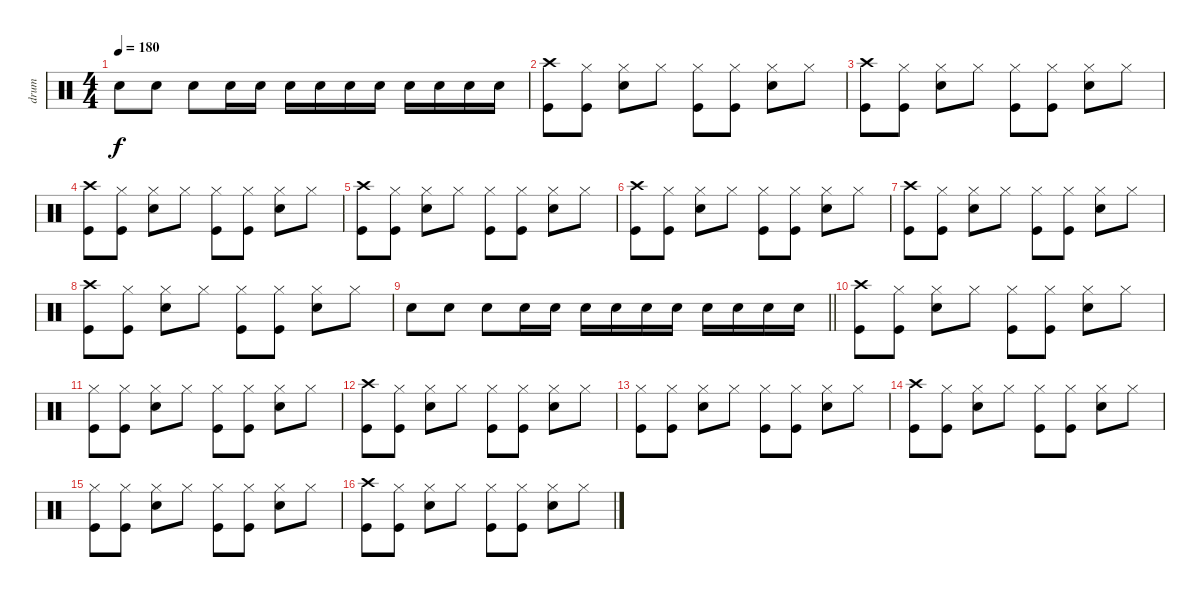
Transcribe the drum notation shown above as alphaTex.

\track ("drum" "drum") {instrument percussion}
\staff {score}
\articulation defaults
\ts (4 4)
\tempo 180
\clef neutral
\ks c "Snare (hit) 2".8{dy f} "Snare (hit) 2".8 "Snare (hit) 2".8 "Snare (hit) 2".16 "Snare (hit) 2".16 "Snare (hit) 2".16 "Snare (hit) 2".16 "Snare (hit) 2".16 "Snare (hit) 2".16 "Snare (hit) 2".16 "Snare (hit) 2".16 "Snare (hit) 2".16 "Snare (hit) 2".16
|
("Crash high (hit)" "Kick (hit)").8 ("Kick (hit)" "Hi-Hat (closed)").8 ("Snare (hit) 2" "Hi-Hat (closed)").8 "Hi-Hat (closed)".8 ("Kick (hit)" "Hi-Hat (closed)").8 ("Kick (hit)" "Hi-Hat (closed)").8 ("Snare (hit) 2" "Hi-Hat (closed)").8 "Hi-Hat (closed)".8 |
("Crash high (hit)" "Kick (hit)").8 ("Kick (hit)" "Hi-Hat (closed)").8 ("Snare (hit) 2" "Hi-Hat (closed)").8 "Hi-Hat (closed)".8 ("Kick (hit)" "Hi-Hat (closed)").8 ("Kick (hit)" "Hi-Hat (closed)").8 ("Snare (hit) 2" "Hi-Hat (closed)").8 "Hi-Hat (closed)".8 |
("Crash high (hit)" "Kick (hit)").8 ("Kick (hit)" "Hi-Hat (closed)").8 ("Snare (hit) 2" "Hi-Hat (closed)").8 "Hi-Hat (closed)".8 ("Kick (hit)" "Hi-Hat (closed)").8 ("Kick (hit)" "Hi-Hat (closed)").8 ("Snare (hit) 2" "Hi-Hat (closed)").8 "Hi-Hat (closed)".8 |
("Crash high (hit)" "Kick (hit)").8 ("Kick (hit)" "Hi-Hat (closed)").8 ("Snare (hit) 2" "Hi-Hat (closed)").8 "Hi-Hat (closed)".8 ("Kick (hit)" "Hi-Hat (closed)").8 ("Kick (hit)" "Hi-Hat (closed)").8 ("Snare (hit) 2" "Hi-Hat (closed)").8 "Hi-Hat (closed)".8 |
("Crash high (hit)" "Kick (hit)").8 ("Kick (hit)" "Hi-Hat (closed)").8 ("Snare (hit) 2" "Hi-Hat (closed)").8 "Hi-Hat (closed)".8 ("Kick (hit)" "Hi-Hat (closed)").8 ("Kick (hit)" "Hi-Hat (closed)").8 ("Snare (hit) 2" "Hi-Hat (closed)").8 "Hi-Hat (closed)".8 |
("Crash high (hit)" "Kick (hit)").8 ("Kick (hit)" "Hi-Hat (closed)").8 ("Snare (hit) 2" "Hi-Hat (closed)").8 "Hi-Hat (closed)".8 ("Kick (hit)" "Hi-Hat (closed)").8 ("Kick (hit)" "Hi-Hat (closed)").8 ("Snare (hit) 2" "Hi-Hat (closed)").8 "Hi-Hat (closed)".8 |
("Crash high (hit)" "Kick (hit)").8 ("Kick (hit)" "Hi-Hat (closed)").8 ("Snare (hit) 2" "Hi-Hat (closed)").8 "Hi-Hat (closed)".8 ("Kick (hit)" "Hi-Hat (closed)").8 ("Kick (hit)" "Hi-Hat (closed)").8 ("Snare (hit) 2" "Hi-Hat (closed)").8 "Hi-Hat (closed)".8 |
\barLineRight lightlight "Snare (hit) 2".8 "Snare (hit) 2".8 "Snare (hit) 2".8 "Snare (hit) 2".16 "Snare (hit) 2".16 "Snare (hit) 2".16 "Snare (hit) 2".16 "Snare (hit) 2".16 "Snare (hit) 2".16 "Snare (hit) 2".16 "Snare (hit) 2".16 "Snare (hit) 2".16 "Snare (hit) 2".16
|
("Crash high (hit)" "Kick (hit)").8 ("Kick (hit)" "Hi-Hat (closed)").8 ("Snare (hit) 2" "Hi-Hat (closed)").8 "Hi-Hat (closed)".8 ("Kick (hit)" "Hi-Hat (closed)").8 ("Kick (hit)" "Hi-Hat (closed)").8 ("Snare (hit) 2" "Hi-Hat (closed)").8 "Hi-Hat (closed)".8 |
("Hi-Hat (closed)" "Kick (hit)").8 ("Kick (hit)" "Hi-Hat (closed)").8 ("Snare (hit) 2" "Hi-Hat (closed)").8 "Hi-Hat (closed)".8 ("Kick (hit)" "Hi-Hat (closed)").8 ("Kick (hit)" "Hi-Hat (closed)").8 ("Snare (hit) 2" "Hi-Hat (closed)").8 "Hi-Hat (closed)".8 |
("Crash high (hit)" "Kick (hit)").8 ("Kick (hit)" "Hi-Hat (closed)").8 ("Snare (hit) 2" "Hi-Hat (closed)").8 "Hi-Hat (closed)".8 ("Kick (hit)" "Hi-Hat (closed)").8 ("Kick (hit)" "Hi-Hat (closed)").8 ("Snare (hit) 2" "Hi-Hat (closed)").8 "Hi-Hat (closed)".8 |
("Hi-Hat (closed)" "Kick (hit)").8 ("Kick (hit)" "Hi-Hat (closed)").8 ("Snare (hit) 2" "Hi-Hat (closed)").8 "Hi-Hat (closed)".8 ("Kick (hit)" "Hi-Hat (closed)").8 ("Kick (hit)" "Hi-Hat (closed)").8 ("Snare (hit) 2" "Hi-Hat (closed)").8 "Hi-Hat (closed)".8 |
("Crash high (hit)" "Kick (hit)").8 ("Kick (hit)" "Hi-Hat (closed)").8 ("Snare (hit) 2" "Hi-Hat (closed)").8 "Hi-Hat (closed)".8 ("Kick (hit)" "Hi-Hat (closed)").8 ("Kick (hit)" "Hi-Hat (closed)").8 ("Snare (hit) 2" "Hi-Hat (closed)").8 "Hi-Hat (closed)".8 |
("Hi-Hat (closed)" "Kick (hit)").8 ("Kick (hit)" "Hi-Hat (closed)").8 ("Snare (hit) 2" "Hi-Hat (closed)").8 "Hi-Hat (closed)".8 ("Kick (hit)" "Hi-Hat (closed)").8 ("Kick (hit)" "Hi-Hat (closed)").8 ("Snare (hit) 2" "Hi-Hat (closed)").8 "Hi-Hat (closed)".8 |
("Crash high (hit)" "Kick (hit)").8 ("Kick (hit)" "Hi-Hat (closed)").8 ("Snare (hit) 2" "Hi-Hat (closed)").8 "Hi-Hat (closed)".8 ("Kick (hit)" "Hi-Hat (closed)").8 ("Kick (hit)" "Hi-Hat (closed)").8 ("Snare (hit) 2" "Hi-Hat (closed)").8 "Hi-Hat (closed)".8
